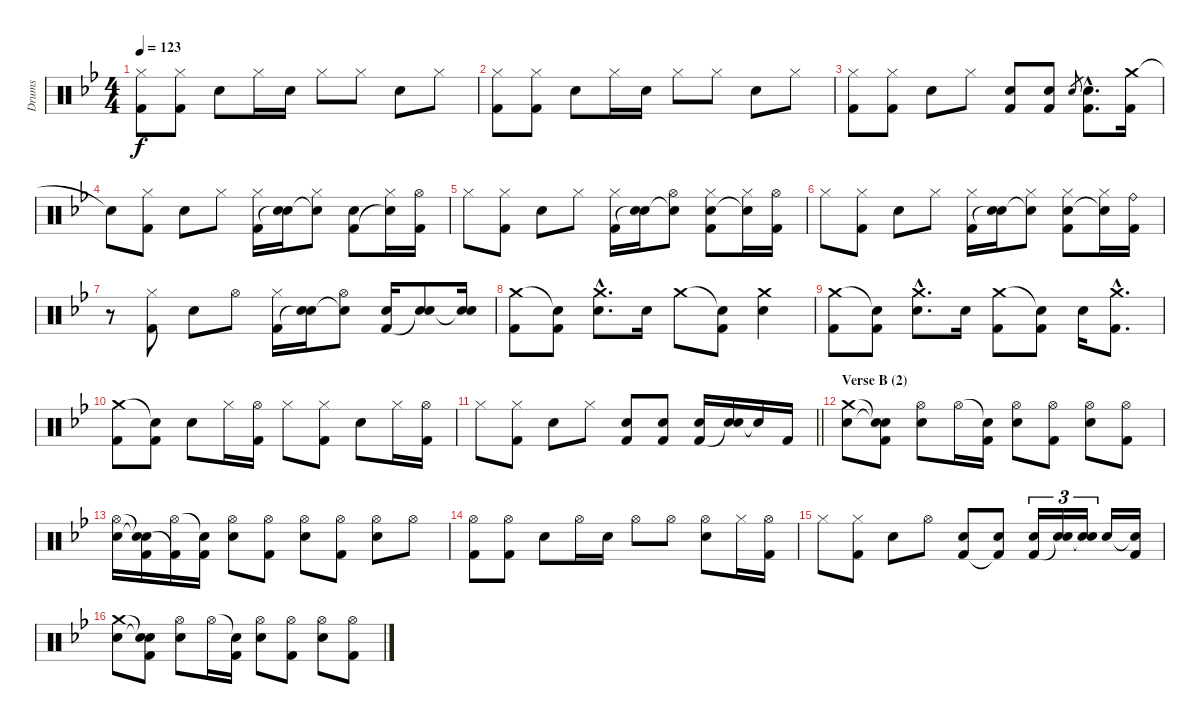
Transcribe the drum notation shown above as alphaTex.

\track ("Drums" "Drums") {instrument percussion}
\staff {score}
\articulation defaults
\ts (4 4)
\tempo 123
\clef neutral
\ks gminor
("Hi-Hat (closed)" "Kick (hit) 2").8{dy f} ("Hi-Hat (closed)" "Kick (hit) 2").8 "Electric Snare (hit)".8 "Hi-Hat (closed)".16 "Electric Snare (hit)".16 "Hi-Hat (closed)".8 "Hi-Hat (closed)".8 "Electric Snare (hit)".8 "Hi-Hat (closed)".8 |
("Hi-Hat (closed)" "Kick (hit) 2").8 ("Hi-Hat (closed)" "Kick (hit) 2").8 "Electric Snare (hit)".8 "Hi-Hat (closed)".16 "Electric Snare (hit)".16 "Hi-Hat (closed)".8 "Hi-Hat (closed)".8 "Electric Snare (hit)".8 "Hi-Hat (closed)".8 |
("Hi-Hat (closed)" "Kick (hit) 2").8 ("Hi-Hat (closed)" "Kick (hit) 2").8 "Electric Snare (hit)".8 "Hi-Hat (closed)".8 ("Electric Snare (hit)" "Kick (hit) 2").8 ("Electric Snare (hit)" "Kick (hit) 2").8 "Electric Snare (hit)".8{gr} ("Electric Snare (hit)"{hac} "Kick (hit) 2"{hac}).8{d} ("Crash medium (hit)" "Kick (hit) 2").16 |
"Snare (hit)"{t}.8 ("Hi-Hat (closed)" "Kick (hit) 2").8 "Electric Snare (hit)".8 "Hi-Hat (closed)".8 ("Hi-Hat (closed)" "Kick (hit) 2").16 ("Electric Snare (hit)" "Snare (hit)"{t}).16 ("Hi-Hat (closed)" "Snare (hit)"{t}).8 ("Electric Snare (hit)" "Kick (hit) 2").8 ("Hi-Hat (closed)" "Snare (hit)"{t}).16 ("Hi-Hat (open)" "Kick (hit) 2").16 |
"Hi-Hat (closed)".8 ("Hi-Hat (closed)" "Kick (hit) 2").8 "Electric Snare (hit)".8 "Hi-Hat (closed)".8 ("Hi-Hat (closed)" "Kick (hit) 2").16 ("Electric Snare (hit)" "Snare (hit)"{t}).16 ("Hi-Hat (open)" "Snare (hit)"{t}).8 ("Hi-Hat (closed)" "Electric Snare (hit)" "Kick (hit) 2").8 ("Hi-Hat (closed)" "Snare (hit)"{t}).16 ("Hi-Hat (open)" "Kick (hit) 2").16 |
"Hi-Hat (closed)".8 ("Hi-Hat (closed)" "Kick (hit) 2").8 "Electric Snare (hit)".8 "Hi-Hat (closed)".8 ("Hi-Hat (closed)" "Kick (hit) 2").16 ("Electric Snare (hit)" "Snare (hit)"{t}).16 ("Hi-Hat (closed)" "Snare (hit)"{t}).8 ("Hi-Hat (closed)" "Electric Snare (hit)" "Kick (hit) 2").8 ("Hi-Hat (closed)" "Snare (hit)"{t}).16 ("Ride (bell)" "Kick (hit) 2").16 |
r.8 ("Hi-Hat (closed)" "Kick (hit) 2").8 "Electric Snare (hit)".8 "Hi-Hat (open)".8 ("Hi-Hat (closed)" "Kick (hit) 2").16 ("Electric Snare (hit)" "Snare (hit)"{t}).16 ("Hi-Hat (open)" "Snare (hit)"{t}).8 ("Electric Snare (hit)" "Kick (hit) 2").16 ("Electric Snare (hit)" "Snare (hit)"{t}).8 ("Electric Snare (hit)" "Snare (hit)"{t}).16 |
("Crash medium (hit)" "Kick (hit) 2").8 ("Snare (hit)"{t} "Kick (hit) 2").8 ("Crash medium (hit)"{hac} "Electric Snare (hit)"{hac}).8{d} "Electric Snare (hit)".16 "Crash medium (hit)".8 ("Snare (hit)"{t} "Kick (hit) 2").8 ("Crash medium (hit)" "Electric Snare (hit)").4 |
("Crash medium (hit)" "Kick (hit) 2").8 ("Snare (hit)"{t} "Kick (hit) 2").8 ("Crash medium (hit)"{hac} "Electric Snare (hit)"{hac}).8{d} "Electric Snare (hit)".16 ("Crash medium (hit)" "Kick (hit) 2").8 ("Snare (hit)"{t} "Kick (hit) 2").8 "Electric Snare (hit)".16 ("Crash medium (hit)"{hac} "Kick (hit) 2"{hac}).8{d} |
("Crash medium (hit)" "Kick (hit) 2").8 ("Snare (hit)"{t} "Kick (hit) 2").8 "Electric Snare (hit)".8 "Hi-Hat (closed)".16 ("Hi-Hat (open)" "Kick (hit) 2").16 "Hi-Hat (closed)".8 ("Hi-Hat (closed)" "Kick (hit) 2").8 "Electric Snare (hit)".8 "Hi-Hat (closed)".16 ("Hi-Hat (open)" "Kick (hit) 2").16 |
\barLineRight lightlight "Hi-Hat (closed)".8
("Hi-Hat (closed)" "Kick (hit) 2").8 "Electric Snare (hit)".8 "Hi-Hat (closed)".8 ("Electric Snare (hit)" "Kick (hit) 2").8 ("Electric Snare (hit)" "Kick (hit) 2").8 ("Electric Snare (hit)" "Kick (hit) 2").16 ("Electric Snare (hit)" "Snare (hit)"{t}).16 "Snare (hit)"{t}.16 "Kick (hit) 2".16 |
\section ("" "Verse B (2)")
("Crash medium (hit)" "Electric Snare (hit)").8 ("Snare (hit)"{t} "Snare (hit)"{t} "Kick (hit) 2").8 ("Hi-Hat (open)" "Electric Snare (hit)").8 "Hi-Hat (open)".16 ("Snare (hit)"{t} "Kick (hit) 2").16 ("Hi-Hat (open)" "Electric Snare (hit)").8 ("Hi-Hat (open)" "Kick (hit) 2").8 ("Hi-Hat (open)" "Electric Snare (hit)").8 ("Hi-Hat (open)" "Kick (hit) 2").8 |
("Hi-Hat (open)" "Electric Snare (hit)").16 ("Snare (hit)"{t} "Snare (hit)"{t} "Kick (hit) 2").16 ("Hi-Hat (open)" "Kick (hit) 2"{t}).16 ("Snare (hit)"{t} "Kick (hit) 2").16 ("Hi-Hat (open)" "Electric Snare (hit)").8 ("Hi-Hat (open)" "Kick (hit) 2").8 ("Hi-Hat (open)" "Electric Snare (hit)").8 ("Hi-Hat (open)" "Kick (hit) 2").8 ("Hi-Hat (open)" "Electric Snare (hit)").8 "Hi-Hat (open)".8 |
("Hi-Hat (open)" "Kick (hit) 2").8 ("Hi-Hat (open)" "Kick (hit) 2").8 "Electric Snare (hit)".8 "Hi-Hat (open)".16 "Electric Snare (hit)".16 "Hi-Hat (open)".8 "Hi-Hat (open)".8 ("Hi-Hat (open)" "Electric Snare (hit)").8 "Hi-Hat (closed)".16 ("Hi-Hat (open)" "Kick (hit) 2").16 |
"Hi-Hat (closed)".8 ("Hi-Hat (closed)" "Kick (hit) 2").8 "Electric Snare (hit)".8 "Hi-Hat (open)".8 ("Electric Snare (hit)" "Kick (hit) 2").8 ("Electric Snare (hit)" "Kick (hit) 2"{t}).8 ("Electric Snare (hit)" "Kick (hit) 2").16{tu (3 2)} ("Electric Snare (hit)" "Snare (hit)"{t}).16{tu (3 2)} ("Electric Snare (hit)" "Snare (hit)"{t}).16{tu (3 2)} "Electric Snare (hit)".16 ("Snare (hit)"{t} "Kick (hit) 2").16 |
("Crash medium (hit)" "Electric Snare (hit)").8 ("Snare (hit)"{t} "Snare (hit)"{t} "Kick (hit) 2").8 ("Hi-Hat (open)" "Electric Snare (hit)").8 "Hi-Hat (open)".16 ("Snare (hit)"{t} "Kick (hit) 2").16 ("Hi-Hat (open)" "Electric Snare (hit)").8 ("Hi-Hat (open)" "Kick (hit) 2").8 ("Hi-Hat (open)" "Electric Snare (hit)").8 ("Hi-Hat (open)" "Kick (hit) 2").8
